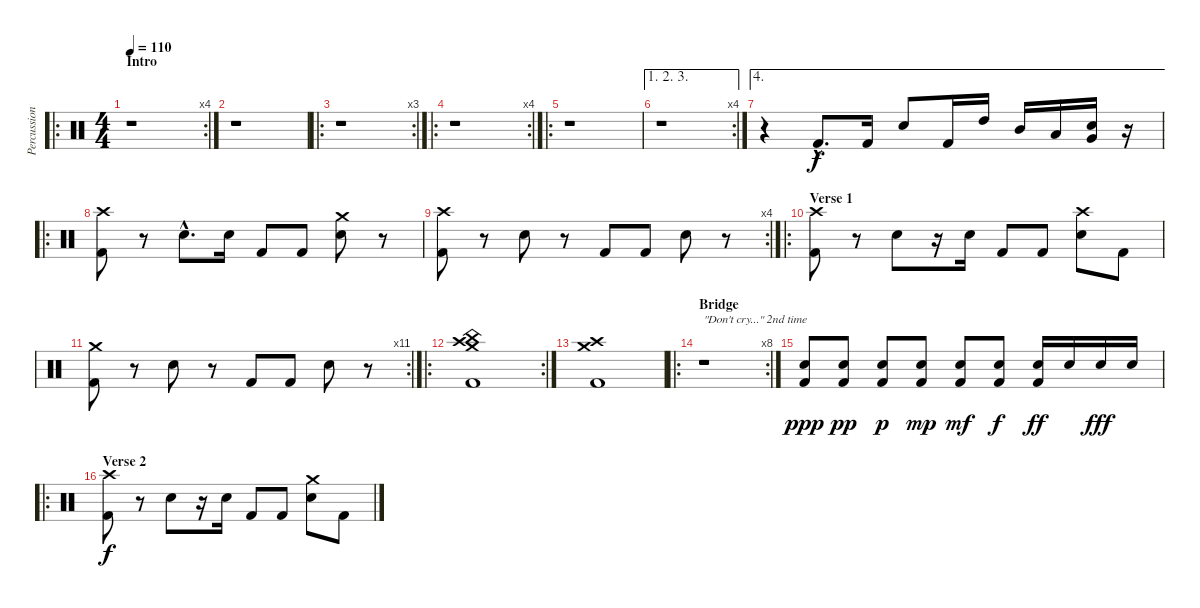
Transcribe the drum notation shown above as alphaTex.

\track ("Percussion (Moon)" "Percussion") {instrument percussion}
\staff {score}
\articulation defaults
\ro
\rc 4
\ts (4 4)
\section ("" "Intro")
\tempo 110
\clef neutral
\ks c
r.1{dy f} |
r.1 |
\ro
\rc 3
r.1 |
\ro
\rc 4
r.1 |
\ro
r.1 |
\ae (1 2 3)
\rc 4
r.1 |
\ae 4
r.4 "Kick (hit) 2"{hac}.8{d} "Kick (hit) 2".16 "Electric Snare (hit)".8 "Kick (hit) 2".16 "High Tom (hit)".16 "Mid Tom (hit)".16 "Low Tom (hit)".16 ("Very Low Tom (hit)" "Electric Snare (hit)").16 r.16 |
\ro
("Crash high (hit)" "Kick (hit) 2").8 r.8 "Electric Snare (hit)"{hac}.8{d} "Electric Snare (hit)".16 "Kick (hit) 2".8 "Kick (hit) 2".8 ("Crash medium (hit)" "Electric Snare (hit)").8 r.8 |
\rc 4
("Crash high (hit)" "Kick (hit) 2").8 r.8 "Electric Snare (hit)".8 r.8 "Kick (hit) 2".8 "Kick (hit) 2".8 "Electric Snare (hit)".8 r.8 |
\ro
\section ("" "Verse 1")
("Crash high (hit)" "Kick (hit) 2").8 r.8 "Electric Snare (hit)".8 r.16 "Electric Snare (hit)".16 "Kick (hit) 2".8 "Kick (hit) 2".8 ("Crash high (hit)" "Electric Snare (hit)").8 "Kick (hit) 2".8 |
\rc 11
("Crash medium (hit)" "Kick (hit) 2").8 r.8 "Electric Snare (hit)".8 r.8 "Kick (hit) 2".8 "Kick (hit) 2".8 "Electric Snare (hit)".8 r.8 |
\ro
\rc 2
("Crash high (hit)" "Crash medium (hit)" "China (hit)" "Kick (hit) 2").1 |
("Crash high (hit)" "Crash medium (hit)" "Kick (hit) 2").1 |
\ro
\rc 8
\section ("" "Bridge")
r.1{txt "\"Don't cry...\" 2nd time"} |
("Electric Snare (hit)" "Kick (hit) 2").8{dy ppp} ("Electric Snare (hit)" "Kick (hit) 2").8{dy pp} ("Electric Snare (hit)" "Kick (hit) 2").8{dy p} ("Electric Snare (hit)" "Kick (hit) 2").8{dy mp} ("Electric Snare (hit)" "Kick (hit) 2").8{dy mf} ("Electric Snare (hit)" "Kick (hit) 2").8{dy f} ("Electric Snare (hit)" "Kick (hit) 2").16{dy ff} "Electric Snare (hit)".16 "Electric Snare (hit)".16{dy fff} "Electric Snare (hit)".16 |
\ro
\section ("" "Verse 2")
("Crash high (hit)" "Kick (hit) 2").8{dy f} r.8 "Electric Snare (hit)".8 r.16 "Electric Snare (hit)".16 "Kick (hit) 2".8 "Kick (hit) 2".8 ("Crash medium (hit)" "Electric Snare (hit)").8 "Kick (hit) 2".8
